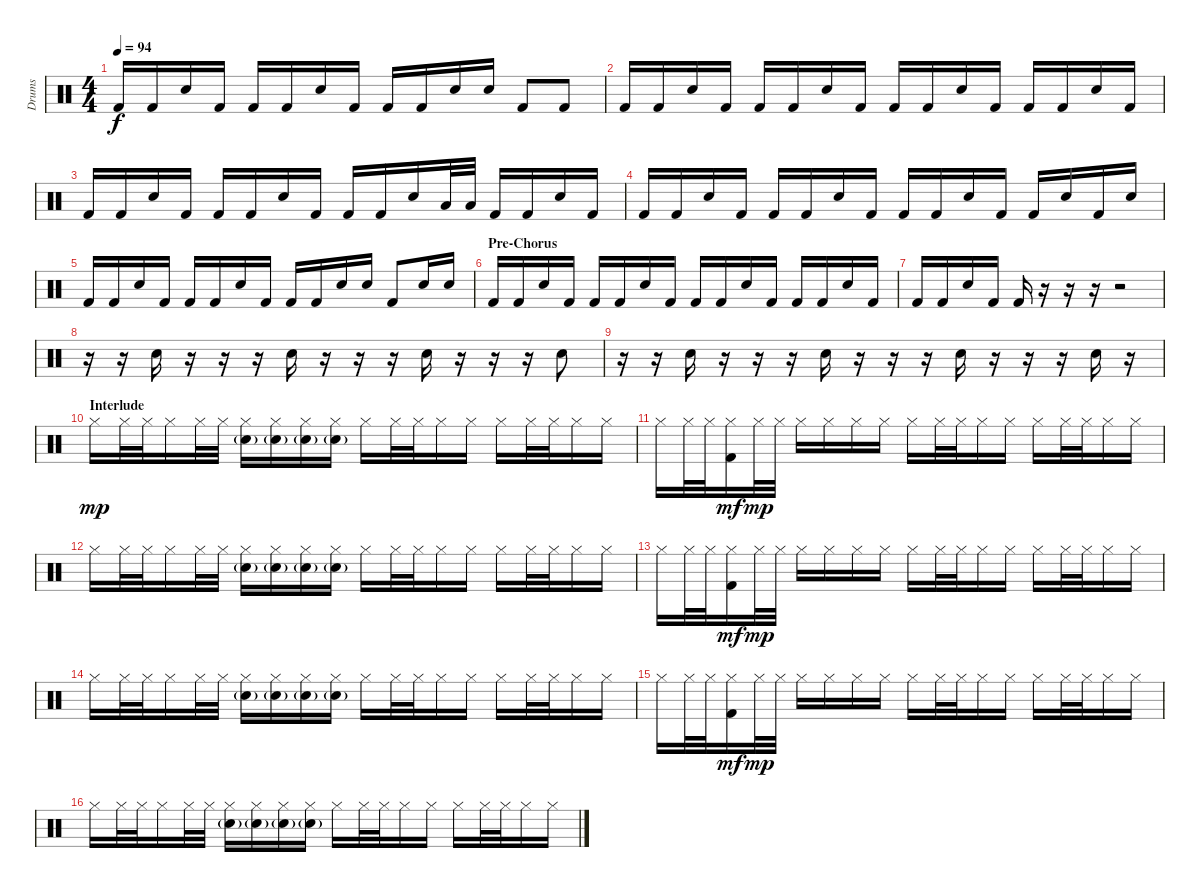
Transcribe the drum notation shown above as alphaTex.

\track ("Drums" "Drums") {instrument percussion}
\staff {score}
\articulation defaults
\ts (4 4)
\tempo 94
\clef neutral
\ks c "Kick (hit) 2".16{dy f} "Kick (hit) 2".16 "Snare (hit) 2".16 "Kick (hit) 2".16 "Kick (hit) 2".16 "Kick (hit) 2".16 "Snare (hit) 2".16 "Kick (hit) 2".16 "Kick (hit) 2".16 "Kick (hit) 2".16 "Snare (hit) 2".16 "Snare (hit) 2".16 "Kick (hit) 2".8 "Kick (hit) 2".8
|
"Kick (hit) 2".16 "Kick (hit) 2".16 "Snare (hit) 2".16 "Kick (hit) 2".16 "Kick (hit) 2".16 "Kick (hit) 2".16 "Snare (hit) 2".16 "Kick (hit) 2".16 "Kick (hit) 2".16 "Kick (hit) 2".16 "Snare (hit) 2".16 "Kick (hit) 2".16 "Kick (hit) 2".16 "Kick (hit) 2".16 "Snare (hit) 2".16 "Kick (hit) 2".16 |
"Kick (hit) 2".16 "Kick (hit) 2".16 "Snare (hit) 2".16 "Kick (hit) 2".16 "Kick (hit) 2".16 "Kick (hit) 2".16 "Snare (hit) 2".16 "Kick (hit) 2".16 "Kick (hit) 2".16 "Kick (hit) 2".16 "Snare (hit) 2".16 "Low Tom (hit)".32 "Low Tom (hit)".32 "Kick (hit) 2".16 "Kick (hit) 2".16 "Snare (hit) 2".16 "Kick (hit) 2".16 |
"Kick (hit) 2".16 "Kick (hit) 2".16 "Snare (hit) 2".16 "Kick (hit) 2".16 "Kick (hit) 2".16 "Kick (hit) 2".16 "Snare (hit) 2".16 "Kick (hit) 2".16 "Kick (hit) 2".16 "Kick (hit) 2".16 "Snare (hit) 2".16 "Kick (hit) 2".16 "Kick (hit) 2".16 "Snare (hit) 2".16 "Kick (hit) 2".16 "Snare (hit) 2".16 |
"Kick (hit) 2".16 "Kick (hit) 2".16 "Snare (hit) 2".16 "Kick (hit) 2".16 "Kick (hit) 2".16 "Kick (hit) 2".16 "Snare (hit) 2".16 "Kick (hit) 2".16 "Kick (hit) 2".16 "Kick (hit) 2".16 "Snare (hit) 2".16 "Snare (hit) 2".16 "Kick (hit) 2".8 "Snare (hit) 2".16 "Snare (hit) 2".16 |
\section ("" "Pre-Chorus")
"Kick (hit) 2".16 "Kick (hit) 2".16 "Snare (hit) 2".16 "Kick (hit) 2".16 "Kick (hit) 2".16 "Kick (hit) 2".16 "Snare (hit) 2".16 "Kick (hit) 2".16 "Kick (hit) 2".16 "Kick (hit) 2".16 "Snare (hit) 2".16 "Kick (hit) 2".16 "Kick (hit) 2".16 "Kick (hit) 2".16 "Snare (hit) 2".16 "Kick (hit) 2".16 |
"Kick (hit) 2".16 "Kick (hit) 2".16 "Snare (hit) 2".16 "Kick (hit) 2".16 "Kick (hit) 2".16 r.16 r.16 r.16 r.2 |
r.16 r.16 "Snare (hit) 2".16 r.16 r.16 r.16 "Snare (hit) 2".16 r.16 r.16 r.16 "Snare (hit) 2".16 r.16 r.16 r.16 "Snare (hit) 2".8 |
r.16 r.16 "Snare (hit) 2".16 r.16 r.16 r.16 "Snare (hit) 2".16 r.16 r.16 r.16 "Snare (hit) 2".16 r.16 r.16 r.16 "Snare (hit) 2".16 r.16 |
\section ("" "Interlude")
"Hi-Hat (closed)".16{dy mp} "Hi-Hat (closed)".32 "Hi-Hat (closed)".32 "Hi-Hat (closed)".16 "Hi-Hat (closed)".32 "Hi-Hat (closed)".32 ("Electric Snare (hit)"{g} "Hi-Hat (closed)").16 ("Electric Snare (hit)"{g} "Hi-Hat (closed)").16 ("Electric Snare (hit)"{g} "Hi-Hat (closed)").16 ("Electric Snare (hit)"{g} "Hi-Hat (closed)").16 "Hi-Hat (closed)".16 "Hi-Hat (closed)".32 "Hi-Hat (closed)".32 "Hi-Hat (closed)".16 "Hi-Hat (closed)".16 "Hi-Hat (closed)".16 "Hi-Hat (closed)".32 "Hi-Hat (closed)".32 "Hi-Hat (closed)".16 "Hi-Hat (closed)".16 |
"Hi-Hat (closed)".16 "Hi-Hat (closed)".32 "Hi-Hat (closed)".32 ("Hi-Hat (closed)" "Kick (hit) 2").16{dy mf} "Hi-Hat (closed)".32{dy mp} "Hi-Hat (closed)".32 "Hi-Hat (closed)".16 "Hi-Hat (closed)".16 "Hi-Hat (closed)".16 "Hi-Hat (closed)".16 "Hi-Hat (closed)".16 "Hi-Hat (closed)".32 "Hi-Hat (closed)".32 "Hi-Hat (closed)".16 "Hi-Hat (closed)".16 "Hi-Hat (closed)".16 "Hi-Hat (closed)".32 "Hi-Hat (closed)".32 "Hi-Hat (closed)".16 "Hi-Hat (closed)".16 |
"Hi-Hat (closed)".16 "Hi-Hat (closed)".32 "Hi-Hat (closed)".32 "Hi-Hat (closed)".16 "Hi-Hat (closed)".32 "Hi-Hat (closed)".32 ("Electric Snare (hit)"{g} "Hi-Hat (closed)").16 ("Electric Snare (hit)"{g} "Hi-Hat (closed)").16 ("Electric Snare (hit)"{g} "Hi-Hat (closed)").16 ("Electric Snare (hit)"{g} "Hi-Hat (closed)").16 "Hi-Hat (closed)".16 "Hi-Hat (closed)".32 "Hi-Hat (closed)".32 "Hi-Hat (closed)".16 "Hi-Hat (closed)".16 "Hi-Hat (closed)".16 "Hi-Hat (closed)".32 "Hi-Hat (closed)".32 "Hi-Hat (closed)".16 "Hi-Hat (closed)".16 |
"Hi-Hat (closed)".16 "Hi-Hat (closed)".32 "Hi-Hat (closed)".32 ("Hi-Hat (closed)" "Kick (hit) 2").16{dy mf} "Hi-Hat (closed)".32{dy mp} "Hi-Hat (closed)".32 "Hi-Hat (closed)".16 "Hi-Hat (closed)".16 "Hi-Hat (closed)".16 "Hi-Hat (closed)".16 "Hi-Hat (closed)".16 "Hi-Hat (closed)".32 "Hi-Hat (closed)".32 "Hi-Hat (closed)".16 "Hi-Hat (closed)".16 "Hi-Hat (closed)".16 "Hi-Hat (closed)".32 "Hi-Hat (closed)".32 "Hi-Hat (closed)".16 "Hi-Hat (closed)".16 |
"Hi-Hat (closed)".16 "Hi-Hat (closed)".32 "Hi-Hat (closed)".32 "Hi-Hat (closed)".16 "Hi-Hat (closed)".32 "Hi-Hat (closed)".32 ("Electric Snare (hit)"{g} "Hi-Hat (closed)").16 ("Electric Snare (hit)"{g} "Hi-Hat (closed)").16 ("Electric Snare (hit)"{g} "Hi-Hat (closed)").16 ("Electric Snare (hit)"{g} "Hi-Hat (closed)").16 "Hi-Hat (closed)".16 "Hi-Hat (closed)".32 "Hi-Hat (closed)".32 "Hi-Hat (closed)".16 "Hi-Hat (closed)".16 "Hi-Hat (closed)".16 "Hi-Hat (closed)".32 "Hi-Hat (closed)".32 "Hi-Hat (closed)".16 "Hi-Hat (closed)".16 |
"Hi-Hat (closed)".16 "Hi-Hat (closed)".32 "Hi-Hat (closed)".32 ("Hi-Hat (closed)" "Kick (hit) 2").16{dy mf} "Hi-Hat (closed)".32{dy mp} "Hi-Hat (closed)".32 "Hi-Hat (closed)".16 "Hi-Hat (closed)".16 "Hi-Hat (closed)".16 "Hi-Hat (closed)".16 "Hi-Hat (closed)".16 "Hi-Hat (closed)".32 "Hi-Hat (closed)".32 "Hi-Hat (closed)".16 "Hi-Hat (closed)".16 "Hi-Hat (closed)".16 "Hi-Hat (closed)".32 "Hi-Hat (closed)".32 "Hi-Hat (closed)".16 "Hi-Hat (closed)".16 |
"Hi-Hat (closed)".16 "Hi-Hat (closed)".32 "Hi-Hat (closed)".32 "Hi-Hat (closed)".16 "Hi-Hat (closed)".32 "Hi-Hat (closed)".32 ("Electric Snare (hit)"{g} "Hi-Hat (closed)").16 ("Electric Snare (hit)"{g} "Hi-Hat (closed)").16 ("Electric Snare (hit)"{g} "Hi-Hat (closed)").16 ("Electric Snare (hit)"{g} "Hi-Hat (closed)").16 "Hi-Hat (closed)".16 "Hi-Hat (closed)".32 "Hi-Hat (closed)".32 "Hi-Hat (closed)".16 "Hi-Hat (closed)".16 "Hi-Hat (closed)".16 "Hi-Hat (closed)".32 "Hi-Hat (closed)".32 "Hi-Hat (closed)".16 "Hi-Hat (closed)".16
